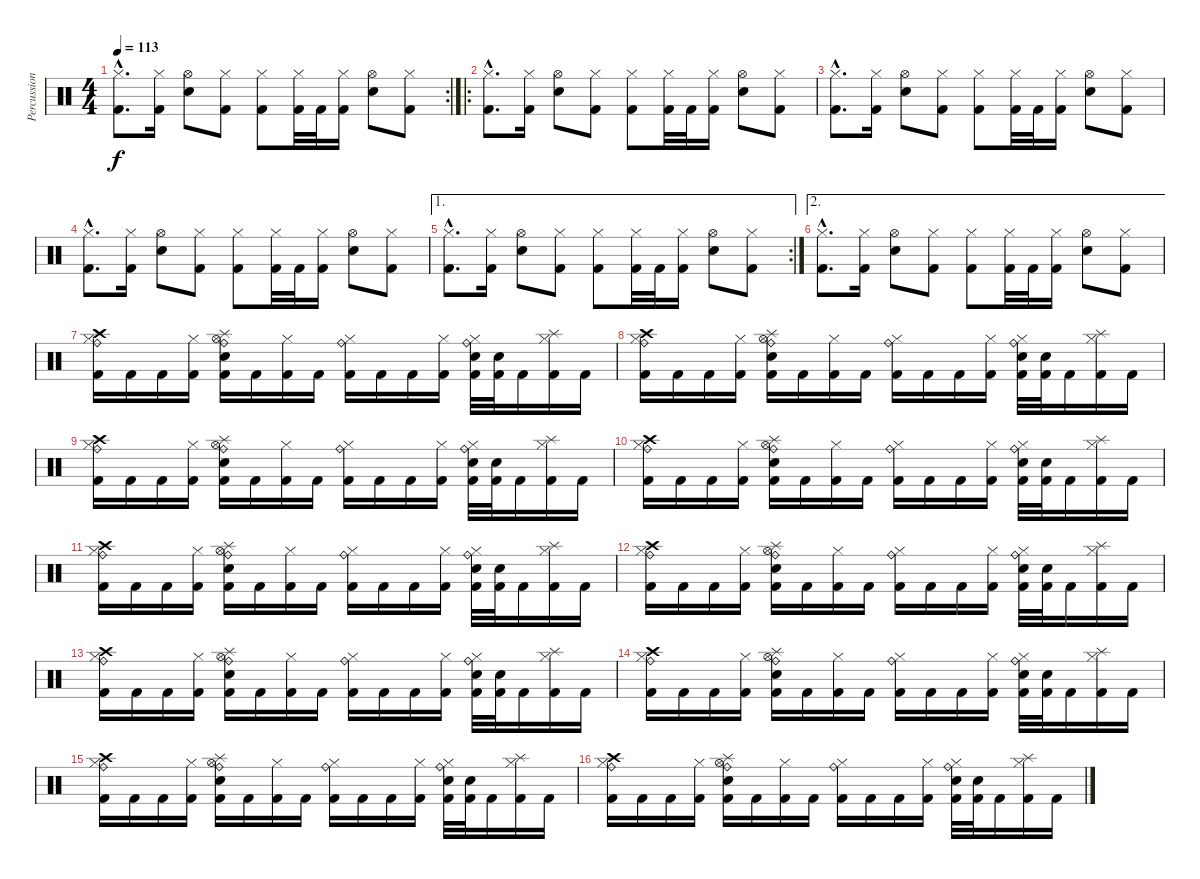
\track ("Percussion" "Percussion") {instrument percussion}
\staff {score}
\articulation defaults
\rc 2
\ts (4 4)
\tempo 113
\clef neutral
\ks c
("Hi-Hat (closed)"{hac} "Kick (hit) 2"{hac}).8{d dy f} ("Hi-Hat (closed)" "Kick (hit) 2").16 ("Hi-Hat (open)" "Snare (hit) 2").8 ("Hi-Hat (closed)" "Kick (hit) 2").8 ("Hi-Hat (closed)" "Kick (hit) 2").8 ("Hi-Hat (closed)" "Kick (hit) 2").32 "Kick (hit) 2".32 ("Hi-Hat (closed)" "Kick (hit) 2").16 ("Hi-Hat (open)" "Snare (hit) 2").8 ("Hi-Hat (closed)" "Kick (hit) 2").8 |
\ro
("Hi-Hat (closed)"{hac} "Kick (hit) 2"{hac}).8{d} ("Hi-Hat (closed)" "Kick (hit) 2").16 ("Hi-Hat (open)" "Snare (hit) 2").8 ("Hi-Hat (closed)" "Kick (hit) 2").8 ("Hi-Hat (closed)" "Kick (hit) 2").8 ("Hi-Hat (closed)" "Kick (hit) 2").32 "Kick (hit) 2".32 ("Hi-Hat (closed)" "Kick (hit) 2").16 ("Hi-Hat (open)" "Snare (hit) 2").8 ("Hi-Hat (closed)" "Kick (hit) 2").8 |
("Hi-Hat (closed)"{hac} "Kick (hit) 2"{hac}).8{d} ("Hi-Hat (closed)" "Kick (hit) 2").16 ("Hi-Hat (open)" "Snare (hit) 2").8 ("Hi-Hat (closed)" "Kick (hit) 2").8 ("Hi-Hat (closed)" "Kick (hit) 2").8 ("Hi-Hat (closed)" "Kick (hit) 2").32 "Kick (hit) 2".32 ("Hi-Hat (closed)" "Kick (hit) 2").16 ("Hi-Hat (open)" "Snare (hit) 2").8 ("Hi-Hat (closed)" "Kick (hit) 2").8 |
("Hi-Hat (closed)"{hac} "Kick (hit) 2"{hac}).8{d} ("Hi-Hat (closed)" "Kick (hit) 2").16 ("Hi-Hat (open)" "Snare (hit) 2").8 ("Hi-Hat (closed)" "Kick (hit) 2").8 ("Hi-Hat (closed)" "Kick (hit) 2").8 ("Hi-Hat (closed)" "Kick (hit) 2").32 "Kick (hit) 2".32 ("Hi-Hat (closed)" "Kick (hit) 2").16 ("Hi-Hat (open)" "Snare (hit) 2").8 ("Hi-Hat (closed)" "Kick (hit) 2").8 |
\ae 1
\rc 2
("Hi-Hat (closed)"{hac} "Kick (hit) 2"{hac}).8{d} ("Hi-Hat (closed)" "Kick (hit) 2").16 ("Hi-Hat (open)" "Snare (hit) 2").8 ("Hi-Hat (closed)" "Kick (hit) 2").8 ("Hi-Hat (closed)" "Kick (hit) 2").8 ("Hi-Hat (closed)" "Kick (hit) 2").32 "Kick (hit) 2".32 ("Hi-Hat (closed)" "Kick (hit) 2").16 ("Hi-Hat (open)" "Snare (hit) 2").8 ("Hi-Hat (closed)" "Kick (hit) 2").8 |
\ae 2
("Hi-Hat (closed)"{hac} "Kick (hit) 2"{hac}).8{d} ("Hi-Hat (closed)" "Kick (hit) 2").16 ("Hi-Hat (open)" "Snare (hit) 2").8 ("Hi-Hat (closed)" "Kick (hit) 2").8 ("Hi-Hat (closed)" "Kick (hit) 2").8 ("Hi-Hat (closed)" "Kick (hit) 2").32 "Kick (hit) 2".32 ("Hi-Hat (closed)" "Kick (hit) 2").16 ("Hi-Hat (open)" "Snare (hit) 2").8 ("Hi-Hat (closed)" "Kick (hit) 2").8 |
("Ride (bell)" "Crash high (hit)" "Hi-Hat (closed)" "Kick (hit) 2").16 "Kick (hit) 2".16 "Kick (hit) 2".16 ("Hi-Hat (closed)" "Kick (hit) 2").16 ("Ride (bell)" "Hi-Hat (open)" "Splash (hit)" "Snare (hit) 2" "Kick (hit) 2").16 "Kick (hit) 2".16 ("Hi-Hat (closed)" "Kick (hit) 2").16 "Kick (hit) 2".16 ("Ride (bell)" "Hi-Hat (closed)" "Kick (hit) 2").16 "Kick (hit) 2".16 "Kick (hit) 2".16 ("Hi-Hat (closed)" "Kick (hit) 2").16 ("Ride (bell)" "Hi-Hat (closed)" "Snare (hit) 2" "Kick (hit) 2").32 ("Snare (hit) 2" "Kick (hit) 2").32 "Kick (hit) 2".16 ("Hi-Hat (closed)" "Splash (hit)" "Kick (hit) 2").16 "Kick (hit) 2".16 |
("Ride (bell)" "Crash high (hit)" "Hi-Hat (closed)" "Kick (hit) 2").16 "Kick (hit) 2".16 "Kick (hit) 2".16 ("Hi-Hat (closed)" "Kick (hit) 2").16 ("Ride (bell)" "Hi-Hat (open)" "Splash (hit)" "Snare (hit) 2" "Kick (hit) 2").16 "Kick (hit) 2".16 ("Hi-Hat (closed)" "Kick (hit) 2").16 "Kick (hit) 2".16 ("Ride (bell)" "Hi-Hat (closed)" "Kick (hit) 2").16 "Kick (hit) 2".16 "Kick (hit) 2".16 ("Hi-Hat (closed)" "Kick (hit) 2").16 ("Ride (bell)" "Hi-Hat (closed)" "Snare (hit) 2" "Kick (hit) 2").32 ("Snare (hit) 2" "Kick (hit) 2").32 "Kick (hit) 2".16 ("Hi-Hat (closed)" "Splash (hit)" "Kick (hit) 2").16 "Kick (hit) 2".16 |
("Ride (bell)" "Crash high (hit)" "Hi-Hat (closed)" "Kick (hit) 2").16 "Kick (hit) 2".16 "Kick (hit) 2".16 ("Hi-Hat (closed)" "Kick (hit) 2").16 ("Ride (bell)" "Hi-Hat (open)" "Splash (hit)" "Snare (hit) 2" "Kick (hit) 2").16 "Kick (hit) 2".16 ("Hi-Hat (closed)" "Kick (hit) 2").16 "Kick (hit) 2".16 ("Ride (bell)" "Hi-Hat (closed)" "Kick (hit) 2").16 "Kick (hit) 2".16 "Kick (hit) 2".16 ("Hi-Hat (closed)" "Kick (hit) 2").16 ("Ride (bell)" "Hi-Hat (closed)" "Snare (hit) 2" "Kick (hit) 2").32 ("Snare (hit) 2" "Kick (hit) 2").32 "Kick (hit) 2".16 ("Hi-Hat (closed)" "Splash (hit)" "Kick (hit) 2").16 "Kick (hit) 2".16 |
("Ride (bell)" "Crash high (hit)" "Hi-Hat (closed)" "Kick (hit) 2").16 "Kick (hit) 2".16 "Kick (hit) 2".16 ("Hi-Hat (closed)" "Kick (hit) 2").16 ("Ride (bell)" "Hi-Hat (open)" "Splash (hit)" "Snare (hit) 2" "Kick (hit) 2").16 "Kick (hit) 2".16 ("Hi-Hat (closed)" "Kick (hit) 2").16 "Kick (hit) 2".16 ("Ride (bell)" "Hi-Hat (closed)" "Kick (hit) 2").16 "Kick (hit) 2".16 "Kick (hit) 2".16 ("Hi-Hat (closed)" "Kick (hit) 2").16 ("Ride (bell)" "Hi-Hat (closed)" "Snare (hit) 2" "Kick (hit) 2").32 ("Snare (hit) 2" "Kick (hit) 2").32 "Kick (hit) 2".16 ("Hi-Hat (closed)" "Splash (hit)" "Kick (hit) 2").16 "Kick (hit) 2".16 |
("Ride (bell)" "Crash high (hit)" "Hi-Hat (closed)" "Kick (hit) 2").16 "Kick (hit) 2".16 "Kick (hit) 2".16 ("Hi-Hat (closed)" "Kick (hit) 2").16 ("Ride (bell)" "Hi-Hat (open)" "Splash (hit)" "Snare (hit) 2" "Kick (hit) 2").16 "Kick (hit) 2".16 ("Hi-Hat (closed)" "Kick (hit) 2").16 "Kick (hit) 2".16 ("Ride (bell)" "Hi-Hat (closed)" "Kick (hit) 2").16 "Kick (hit) 2".16 "Kick (hit) 2".16 ("Hi-Hat (closed)" "Kick (hit) 2").16 ("Ride (bell)" "Hi-Hat (closed)" "Snare (hit) 2" "Kick (hit) 2").32 ("Snare (hit) 2" "Kick (hit) 2").32 "Kick (hit) 2".16 ("Hi-Hat (closed)" "Splash (hit)" "Kick (hit) 2").16 "Kick (hit) 2".16 |
("Ride (bell)" "Crash high (hit)" "Hi-Hat (closed)" "Kick (hit) 2").16 "Kick (hit) 2".16 "Kick (hit) 2".16 ("Hi-Hat (closed)" "Kick (hit) 2").16 ("Ride (bell)" "Hi-Hat (open)" "Splash (hit)" "Snare (hit) 2" "Kick (hit) 2").16 "Kick (hit) 2".16 ("Hi-Hat (closed)" "Kick (hit) 2").16 "Kick (hit) 2".16 ("Ride (bell)" "Hi-Hat (closed)" "Kick (hit) 2").16 "Kick (hit) 2".16 "Kick (hit) 2".16 ("Hi-Hat (closed)" "Kick (hit) 2").16 ("Ride (bell)" "Hi-Hat (closed)" "Snare (hit) 2" "Kick (hit) 2").32 ("Snare (hit) 2" "Kick (hit) 2").32 "Kick (hit) 2".16 ("Hi-Hat (closed)" "Splash (hit)" "Kick (hit) 2").16 "Kick (hit) 2".16 |
("Ride (bell)" "Crash high (hit)" "Hi-Hat (closed)" "Kick (hit) 2").16 "Kick (hit) 2".16 "Kick (hit) 2".16 ("Hi-Hat (closed)" "Kick (hit) 2").16 ("Ride (bell)" "Hi-Hat (open)" "Splash (hit)" "Snare (hit) 2" "Kick (hit) 2").16 "Kick (hit) 2".16 ("Hi-Hat (closed)" "Kick (hit) 2").16 "Kick (hit) 2".16 ("Ride (bell)" "Hi-Hat (closed)" "Kick (hit) 2").16 "Kick (hit) 2".16 "Kick (hit) 2".16 ("Hi-Hat (closed)" "Kick (hit) 2").16 ("Ride (bell)" "Hi-Hat (closed)" "Snare (hit) 2" "Kick (hit) 2").32 ("Snare (hit) 2" "Kick (hit) 2").32 "Kick (hit) 2".16 ("Hi-Hat (closed)" "Splash (hit)" "Kick (hit) 2").16 "Kick (hit) 2".16 |
("Ride (bell)" "Crash high (hit)" "Hi-Hat (closed)" "Kick (hit) 2").16 "Kick (hit) 2".16 "Kick (hit) 2".16 ("Hi-Hat (closed)" "Kick (hit) 2").16 ("Ride (bell)" "Hi-Hat (open)" "Splash (hit)" "Snare (hit) 2" "Kick (hit) 2").16 "Kick (hit) 2".16 ("Hi-Hat (closed)" "Kick (hit) 2").16 "Kick (hit) 2".16 ("Ride (bell)" "Hi-Hat (closed)" "Kick (hit) 2").16 "Kick (hit) 2".16 "Kick (hit) 2".16 ("Hi-Hat (closed)" "Kick (hit) 2").16 ("Ride (bell)" "Hi-Hat (closed)" "Snare (hit) 2" "Kick (hit) 2").32 ("Snare (hit) 2" "Kick (hit) 2").32 "Kick (hit) 2".16 ("Hi-Hat (closed)" "Splash (hit)" "Kick (hit) 2").16 "Kick (hit) 2".16 |
("Ride (bell)" "Crash high (hit)" "Hi-Hat (closed)" "Kick (hit) 2").16 "Kick (hit) 2".16 "Kick (hit) 2".16 ("Hi-Hat (closed)" "Kick (hit) 2").16 ("Ride (bell)" "Hi-Hat (open)" "Splash (hit)" "Snare (hit) 2" "Kick (hit) 2").16 "Kick (hit) 2".16 ("Hi-Hat (closed)" "Kick (hit) 2").16 "Kick (hit) 2".16 ("Ride (bell)" "Hi-Hat (closed)" "Kick (hit) 2").16 "Kick (hit) 2".16 "Kick (hit) 2".16 ("Hi-Hat (closed)" "Kick (hit) 2").16 ("Ride (bell)" "Hi-Hat (closed)" "Snare (hit) 2" "Kick (hit) 2").32 ("Snare (hit) 2" "Kick (hit) 2").32 "Kick (hit) 2".16 ("Hi-Hat (closed)" "Splash (hit)" "Kick (hit) 2").16 "Kick (hit) 2".16 |
("Ride (bell)" "Crash high (hit)" "Hi-Hat (closed)" "Kick (hit) 2").16 "Kick (hit) 2".16 "Kick (hit) 2".16 ("Hi-Hat (closed)" "Kick (hit) 2").16 ("Ride (bell)" "Hi-Hat (open)" "Splash (hit)" "Snare (hit) 2" "Kick (hit) 2").16 "Kick (hit) 2".16 ("Hi-Hat (closed)" "Kick (hit) 2").16 "Kick (hit) 2".16 ("Ride (bell)" "Hi-Hat (closed)" "Kick (hit) 2").16 "Kick (hit) 2".16 "Kick (hit) 2".16 ("Hi-Hat (closed)" "Kick (hit) 2").16 ("Ride (bell)" "Hi-Hat (closed)" "Snare (hit) 2" "Kick (hit) 2").32 ("Snare (hit) 2" "Kick (hit) 2").32 "Kick (hit) 2".16 ("Hi-Hat (closed)" "Splash (hit)" "Kick (hit) 2").16 "Kick (hit) 2".16
